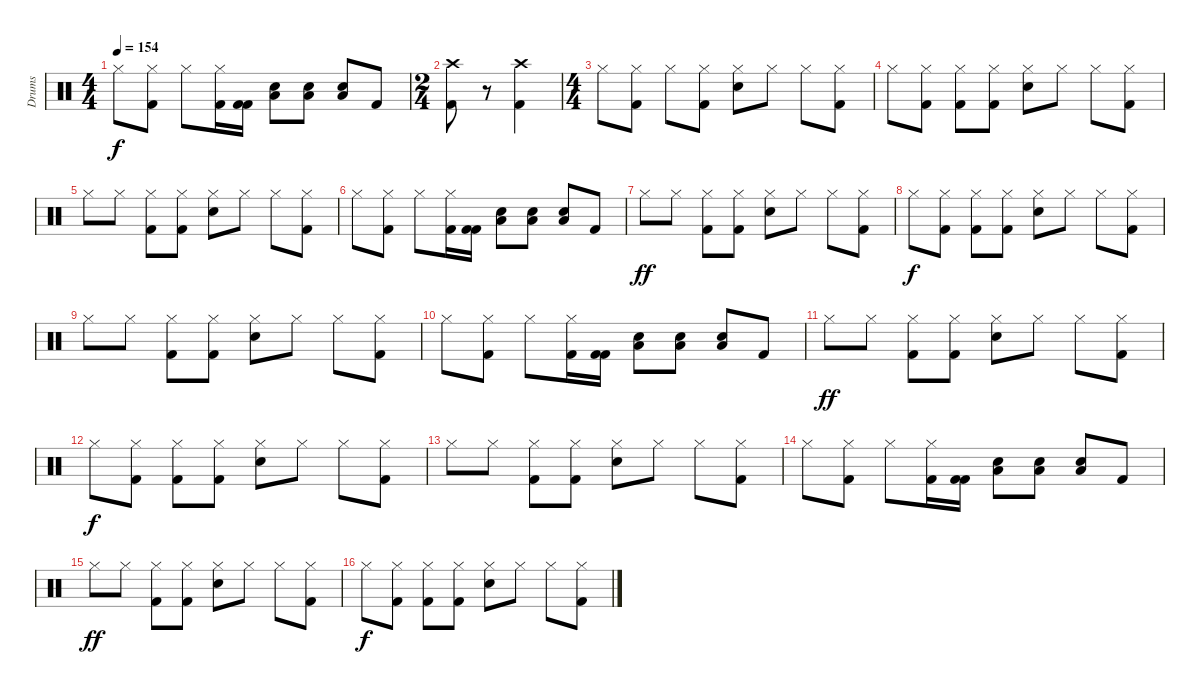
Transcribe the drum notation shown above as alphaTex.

\track ("Drums" "Drums") {instrument percussion}
\staff {score}
\articulation defaults
\ts (4 4)
\tempo 154
\clef neutral
\ks c "Hi-Hat (closed)".8{dy f}
("Kick (hit) 2" "Hi-Hat (closed)").8 "Hi-Hat (closed)".8 ("Kick (hit) 2" "Hi-Hat (closed)").16 ("Kick (hit) 2" "Kick (hit) 2").16 ("Snare (hit) 2" "Low Floor Tom (hit)").8 ("Snare (hit) 2" "Low Floor Tom (hit)").8 ("Snare (hit) 2" "Low Floor Tom (hit)").8 "Kick (hit) 2".8 |
\ts (2 4)
("Kick (hit) 2" "Crash high (hit)").8 r.8 ("Kick (hit) 2" "Crash high (hit)").4 |
\ts (4 4)
"Hi-Hat (closed)".8 ("Kick (hit) 2" "Hi-Hat (closed)").8 "Hi-Hat (closed)".8 ("Kick (hit) 2" "Hi-Hat (closed)").8 ("Snare (hit) 2" "Hi-Hat (closed)").8 "Hi-Hat (closed)".8 "Hi-Hat (closed)".8 ("Kick (hit) 2" "Hi-Hat (closed)").8 |
"Hi-Hat (closed)".8 ("Kick (hit) 2" "Hi-Hat (closed)").8 ("Kick (hit) 2" "Hi-Hat (closed)").8 ("Kick (hit) 2" "Hi-Hat (closed)").8 ("Snare (hit) 2" "Hi-Hat (closed)").8 "Hi-Hat (closed)".8 "Hi-Hat (closed)".8 ("Kick (hit) 2" "Hi-Hat (closed)").8 |
"Hi-Hat (closed)".8 "Hi-Hat (closed)".8 ("Kick (hit) 2" "Hi-Hat (closed)").8 ("Kick (hit) 2" "Hi-Hat (closed)").8 ("Snare (hit) 2" "Hi-Hat (closed)").8 "Hi-Hat (closed)".8 "Hi-Hat (closed)".8 ("Kick (hit) 2" "Hi-Hat (closed)").8 |
"Hi-Hat (closed)".8 ("Kick (hit) 2" "Hi-Hat (closed)").8 "Hi-Hat (closed)".8 ("Kick (hit) 2" "Hi-Hat (closed)").16 ("Kick (hit) 2" "Kick (hit) 2").16 ("Snare (hit) 2" "Low Floor Tom (hit)").8 ("Snare (hit) 2" "Low Floor Tom (hit)").8 ("Snare (hit) 2" "Low Floor Tom (hit)").8 "Kick (hit) 2".8 |
"Hi-Hat (closed)".8{dy ff} "Hi-Hat (closed)".8 ("Kick (hit) 2" "Hi-Hat (closed)").8 ("Kick (hit) 2" "Hi-Hat (closed)").8 ("Snare (hit) 2" "Hi-Hat (closed)").8 "Hi-Hat (closed)".8 "Hi-Hat (closed)".8 ("Kick (hit) 2" "Hi-Hat (closed)").8 |
"Hi-Hat (closed)".8{dy f} ("Kick (hit) 2" "Hi-Hat (closed)").8 ("Kick (hit) 2" "Hi-Hat (closed)").8 ("Kick (hit) 2" "Hi-Hat (closed)").8 ("Snare (hit) 2" "Hi-Hat (closed)").8 "Hi-Hat (closed)".8 "Hi-Hat (closed)".8 ("Kick (hit) 2" "Hi-Hat (closed)").8 |
"Hi-Hat (closed)".8 "Hi-Hat (closed)".8 ("Kick (hit) 2" "Hi-Hat (closed)").8 ("Kick (hit) 2" "Hi-Hat (closed)").8 ("Snare (hit) 2" "Hi-Hat (closed)").8 "Hi-Hat (closed)".8 "Hi-Hat (closed)".8 ("Kick (hit) 2" "Hi-Hat (closed)").8 |
"Hi-Hat (closed)".8 ("Kick (hit) 2" "Hi-Hat (closed)").8 "Hi-Hat (closed)".8 ("Kick (hit) 2" "Hi-Hat (closed)").16 ("Kick (hit) 2" "Kick (hit) 2").16 ("Snare (hit) 2" "Low Floor Tom (hit)").8 ("Snare (hit) 2" "Low Floor Tom (hit)").8 ("Snare (hit) 2" "Low Floor Tom (hit)").8 "Kick (hit) 2".8 |
"Hi-Hat (closed)".8{dy ff} "Hi-Hat (closed)".8 ("Kick (hit) 2" "Hi-Hat (closed)").8 ("Kick (hit) 2" "Hi-Hat (closed)").8 ("Snare (hit) 2" "Hi-Hat (closed)").8 "Hi-Hat (closed)".8 "Hi-Hat (closed)".8 ("Kick (hit) 2" "Hi-Hat (closed)").8 |
"Hi-Hat (closed)".8{dy f} ("Kick (hit) 2" "Hi-Hat (closed)").8 ("Kick (hit) 2" "Hi-Hat (closed)").8 ("Kick (hit) 2" "Hi-Hat (closed)").8 ("Snare (hit) 2" "Hi-Hat (closed)").8 "Hi-Hat (closed)".8 "Hi-Hat (closed)".8 ("Kick (hit) 2" "Hi-Hat (closed)").8 |
"Hi-Hat (closed)".8 "Hi-Hat (closed)".8 ("Kick (hit) 2" "Hi-Hat (closed)").8 ("Kick (hit) 2" "Hi-Hat (closed)").8 ("Snare (hit) 2" "Hi-Hat (closed)").8 "Hi-Hat (closed)".8 "Hi-Hat (closed)".8 ("Kick (hit) 2" "Hi-Hat (closed)").8 |
"Hi-Hat (closed)".8 ("Kick (hit) 2" "Hi-Hat (closed)").8 "Hi-Hat (closed)".8 ("Kick (hit) 2" "Hi-Hat (closed)").16 ("Kick (hit) 2" "Kick (hit) 2").16 ("Snare (hit) 2" "Low Floor Tom (hit)").8 ("Snare (hit) 2" "Low Floor Tom (hit)").8 ("Snare (hit) 2" "Low Floor Tom (hit)").8 "Kick (hit) 2".8 |
"Hi-Hat (closed)".8{dy ff} "Hi-Hat (closed)".8 ("Kick (hit) 2" "Hi-Hat (closed)").8 ("Kick (hit) 2" "Hi-Hat (closed)").8 ("Snare (hit) 2" "Hi-Hat (closed)").8 "Hi-Hat (closed)".8 "Hi-Hat (closed)".8 ("Kick (hit) 2" "Hi-Hat (closed)").8 |
"Hi-Hat (closed)".8{dy f} ("Kick (hit) 2" "Hi-Hat (closed)").8 ("Kick (hit) 2" "Hi-Hat (closed)").8 ("Kick (hit) 2" "Hi-Hat (closed)").8 ("Snare (hit) 2" "Hi-Hat (closed)").8 "Hi-Hat (closed)".8 "Hi-Hat (closed)".8 ("Kick (hit) 2" "Hi-Hat (closed)").8
